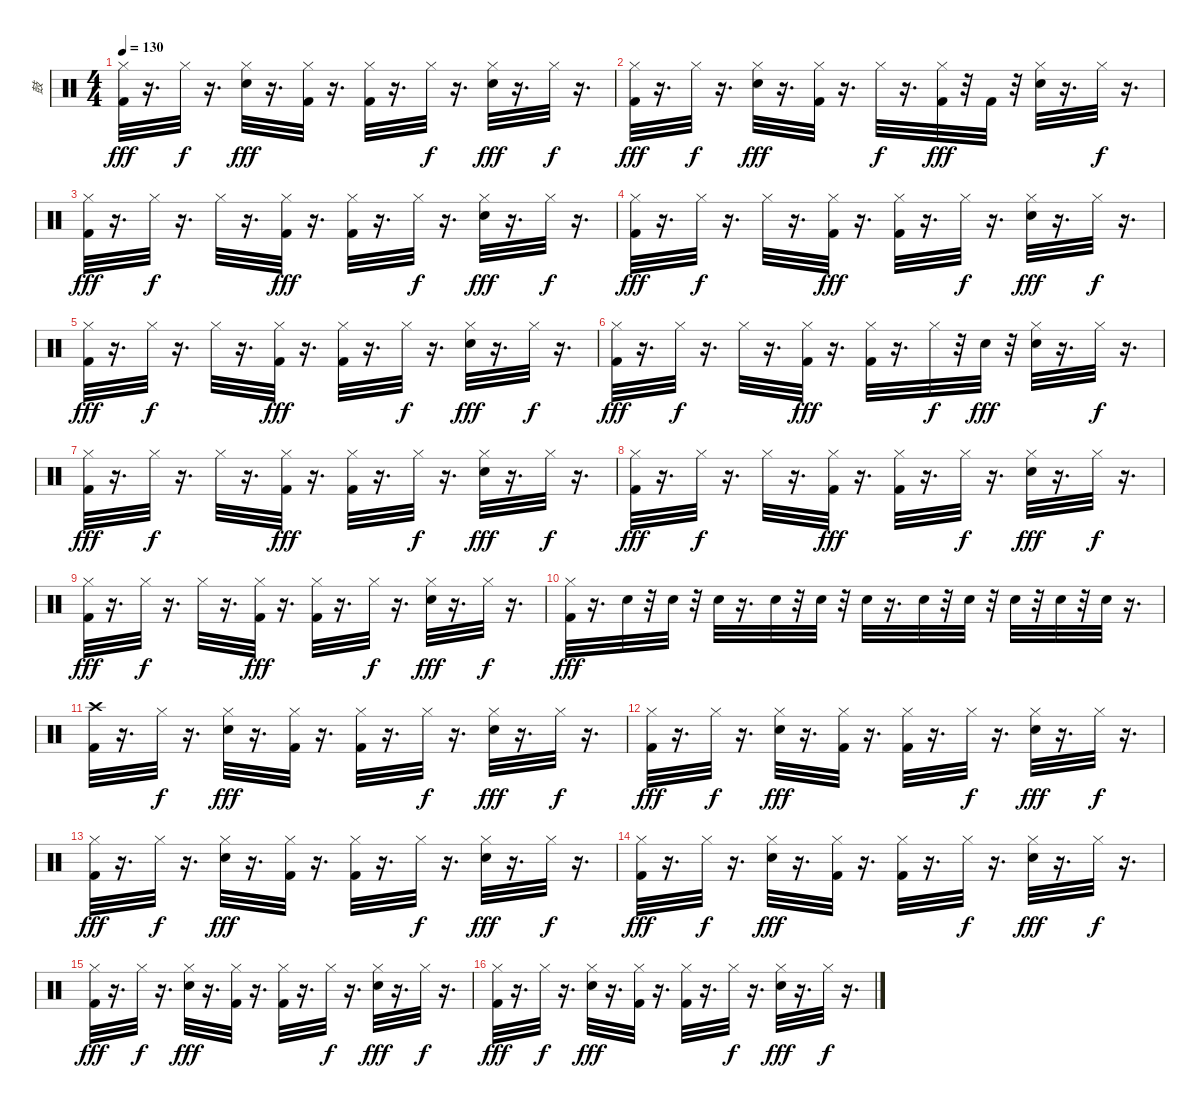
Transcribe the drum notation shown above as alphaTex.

\track ("鼓" "鼓") {instrument percussion}
\staff {score}
\articulation defaults
\ts (4 4)
\tempo 130
\clef neutral
\ks c
("Kick (hit) 2" "Hi-Hat (closed)").32{dy fff} r.16{d} "Hi-Hat (closed)".32{dy f} r.16{d} ("Hi-Hat (closed)" "Electric Snare (hit)").32{dy fff} r.16{d} ("Kick (hit) 2" "Hi-Hat (closed)").32 r.16{d} ("Kick (hit) 2" "Hi-Hat (closed)").32 r.16{d} "Hi-Hat (closed)".32{dy f} r.16{d} ("Hi-Hat (closed)" "Electric Snare (hit)").32{dy fff} r.16{d} "Hi-Hat (closed)".32{dy f} r.16{d} |
("Hi-Hat (closed)" "Kick (hit) 2").32{dy fff} r.16{d} "Hi-Hat (closed)".32{dy f} r.16{d} ("Hi-Hat (closed)" "Electric Snare (hit)").32{dy fff} r.16{d} ("Kick (hit) 2" "Hi-Hat (closed)").32 r.16{d} "Hi-Hat (closed)".32{dy f} r.16{d} ("Hi-Hat (closed)" "Kick (hit) 2").32{dy fff} r.32 "Kick (hit) 2".32 r.32 ("Electric Snare (hit)" "Hi-Hat (closed)").32 r.16{d} "Hi-Hat (closed)".32{dy f} r.16{d} |
("Kick (hit) 2" "Hi-Hat (closed)").32{dy fff} r.16{d} "Hi-Hat (closed)".32{dy f} r.16{d} "Hi-Hat (closed)".32 r.16{d} ("Kick (hit) 2" "Hi-Hat (closed)").32{dy fff} r.16{d} ("Kick (hit) 2" "Hi-Hat (closed)").32 r.16{d} "Hi-Hat (closed)".32{dy f} r.16{d} ("Hi-Hat (closed)" "Electric Snare (hit)").32{dy fff} r.16{d} "Hi-Hat (closed)".32{dy f} r.16{d} |
("Kick (hit) 2" "Hi-Hat (closed)").32{dy fff} r.16{d} "Hi-Hat (closed)".32{dy f} r.16{d} "Hi-Hat (closed)".32 r.16{d} ("Kick (hit) 2" "Hi-Hat (closed)").32{dy fff} r.16{d} ("Kick (hit) 2" "Hi-Hat (closed)").32 r.16{d} "Hi-Hat (closed)".32{dy f} r.16{d} ("Hi-Hat (closed)" "Electric Snare (hit)").32{dy fff} r.16{d} "Hi-Hat (closed)".32{dy f} r.16{d} |
("Kick (hit) 2" "Hi-Hat (closed)").32{dy fff} r.16{d} "Hi-Hat (closed)".32{dy f} r.16{d} "Hi-Hat (closed)".32 r.16{d} ("Kick (hit) 2" "Hi-Hat (closed)").32{dy fff} r.16{d} ("Kick (hit) 2" "Hi-Hat (closed)").32 r.16{d} "Hi-Hat (closed)".32{dy f} r.16{d} ("Hi-Hat (closed)" "Electric Snare (hit)").32{dy fff} r.16{d} "Hi-Hat (closed)".32{dy f} r.16{d} |
("Hi-Hat (closed)" "Kick (hit) 2").32{dy fff} r.16{d} "Hi-Hat (closed)".32{dy f} r.16{d} "Hi-Hat (closed)".32 r.16{d} ("Kick (hit) 2" "Hi-Hat (closed)").32{dy fff} r.16{d} ("Kick (hit) 2" "Hi-Hat (closed)").32 r.16{d} "Hi-Hat (closed)".32{dy f} r.32 "Electric Snare (hit)".32{dy fff} r.32 ("Electric Snare (hit)" "Hi-Hat (closed)").32 r.16{d} "Hi-Hat (closed)".32{dy f} r.16{d} |
("Hi-Hat (closed)" "Kick (hit) 2").32{dy fff} r.16{d} "Hi-Hat (closed)".32{dy f} r.16{d} "Hi-Hat (closed)".32 r.16{d} ("Kick (hit) 2" "Hi-Hat (closed)").32{dy fff} r.16{d} ("Kick (hit) 2" "Hi-Hat (closed)").32 r.16{d} "Hi-Hat (closed)".32{dy f} r.16{d} ("Hi-Hat (closed)" "Electric Snare (hit)").32{dy fff} r.16{d} "Hi-Hat (closed)".32{dy f} r.16{d} |
("Kick (hit) 2" "Hi-Hat (closed)").32{dy fff} r.16{d} "Hi-Hat (closed)".32{dy f} r.16{d} "Hi-Hat (closed)".32 r.16{d} ("Kick (hit) 2" "Hi-Hat (closed)").32{dy fff} r.16{d} ("Kick (hit) 2" "Hi-Hat (closed)").32 r.16{d} "Hi-Hat (closed)".32{dy f} r.16{d} ("Hi-Hat (closed)" "Electric Snare (hit)").32{dy fff} r.16{d} "Hi-Hat (closed)".32{dy f} r.16{d} |
("Hi-Hat (closed)" "Kick (hit) 2").32{dy fff} r.16{d} "Hi-Hat (closed)".32{dy f} r.16{d} "Hi-Hat (closed)".32 r.16{d} ("Kick (hit) 2" "Hi-Hat (closed)").32{dy fff} r.16{d} ("Kick (hit) 2" "Hi-Hat (closed)").32 r.16{d} "Hi-Hat (closed)".32{dy f} r.16{d} ("Hi-Hat (closed)" "Electric Snare (hit)").32{dy fff} r.16{d} "Hi-Hat (closed)".32{dy f} r.16{d} |
("Kick (hit) 2" "Hi-Hat (closed)").32{dy fff} r.16{d} "Snare (hit) 2".32 r.32 "Electric Snare (hit)".32 r.32 "Snare (hit) 2".32 r.16{d} "Snare (hit) 2".32 r.32 "Electric Snare (hit)".32 r.32 "Snare (hit) 2".32 r.16{d} "Snare (hit) 2".32 r.32 "Electric Snare (hit)".32 r.32 "Snare (hit) 2".32 r.32 "Electric Snare (hit)".32 r.32 "Snare (hit) 2".32 r.16{d} |
("Crash high (hit)" "Kick (hit) 2").32 r.16{d} "Hi-Hat (closed)".32{dy f} r.16{d} ("Hi-Hat (closed)" "Electric Snare (hit)").32{dy fff} r.16{d} ("Kick (hit) 2" "Hi-Hat (closed)").32 r.16{d} ("Kick (hit) 2" "Hi-Hat (closed)").32 r.16{d} "Hi-Hat (closed)".32{dy f} r.16{d} ("Hi-Hat (closed)" "Electric Snare (hit)").32{dy fff} r.16{d} "Hi-Hat (closed)".32{dy f} r.16{d} |
("Kick (hit) 2" "Hi-Hat (closed)").32{dy fff} r.16{d} "Hi-Hat (closed)".32{dy f} r.16{d} ("Hi-Hat (closed)" "Electric Snare (hit)").32{dy fff} r.16{d} ("Kick (hit) 2" "Hi-Hat (closed)").32 r.16{d} ("Kick (hit) 2" "Hi-Hat (closed)").32 r.16{d} "Hi-Hat (closed)".32{dy f} r.16{d} ("Hi-Hat (closed)" "Electric Snare (hit)").32{dy fff} r.16{d} "Hi-Hat (closed)".32{dy f} r.16{d} |
("Kick (hit) 2" "Hi-Hat (closed)").32{dy fff} r.16{d} "Hi-Hat (closed)".32{dy f} r.16{d} ("Hi-Hat (closed)" "Electric Snare (hit)").32{dy fff} r.16{d} ("Kick (hit) 2" "Hi-Hat (closed)").32 r.16{d} ("Kick (hit) 2" "Hi-Hat (closed)").32 r.16{d} "Hi-Hat (closed)".32{dy f} r.16{d} ("Hi-Hat (closed)" "Electric Snare (hit)").32{dy fff} r.16{d} "Hi-Hat (closed)".32{dy f} r.16{d} |
("Kick (hit) 2" "Hi-Hat (closed)").32{dy fff} r.16{d} "Hi-Hat (closed)".32{dy f} r.16{d} ("Hi-Hat (closed)" "Electric Snare (hit)").32{dy fff} r.16{d} ("Kick (hit) 2" "Hi-Hat (closed)").32 r.16{d} ("Kick (hit) 2" "Hi-Hat (closed)").32 r.16{d} "Hi-Hat (closed)".32{dy f} r.16{d} ("Hi-Hat (closed)" "Electric Snare (hit)").32{dy fff} r.16{d} "Hi-Hat (closed)".32{dy f} r.16{d} |
("Kick (hit) 2" "Hi-Hat (closed)").32{dy fff} r.16{d} "Hi-Hat (closed)".32{dy f} r.16{d} ("Hi-Hat (closed)" "Electric Snare (hit)").32{dy fff} r.16{d} ("Kick (hit) 2" "Hi-Hat (closed)").32 r.16{d} ("Kick (hit) 2" "Hi-Hat (closed)").32 r.16{d} "Hi-Hat (closed)".32{dy f} r.16{d} ("Hi-Hat (closed)" "Electric Snare (hit)").32{dy fff} r.16{d} "Hi-Hat (closed)".32{dy f} r.16{d} |
("Kick (hit) 2" "Hi-Hat (closed)").32{dy fff} r.16{d} "Hi-Hat (closed)".32{dy f} r.16{d} ("Hi-Hat (closed)" "Electric Snare (hit)").32{dy fff} r.16{d} ("Kick (hit) 2" "Hi-Hat (closed)").32 r.16{d} ("Kick (hit) 2" "Hi-Hat (closed)").32 r.16{d} "Hi-Hat (closed)".32{dy f} r.16{d} ("Hi-Hat (closed)" "Electric Snare (hit)").32{dy fff} r.16{d} "Hi-Hat (closed)".32{dy f} r.16{d}
